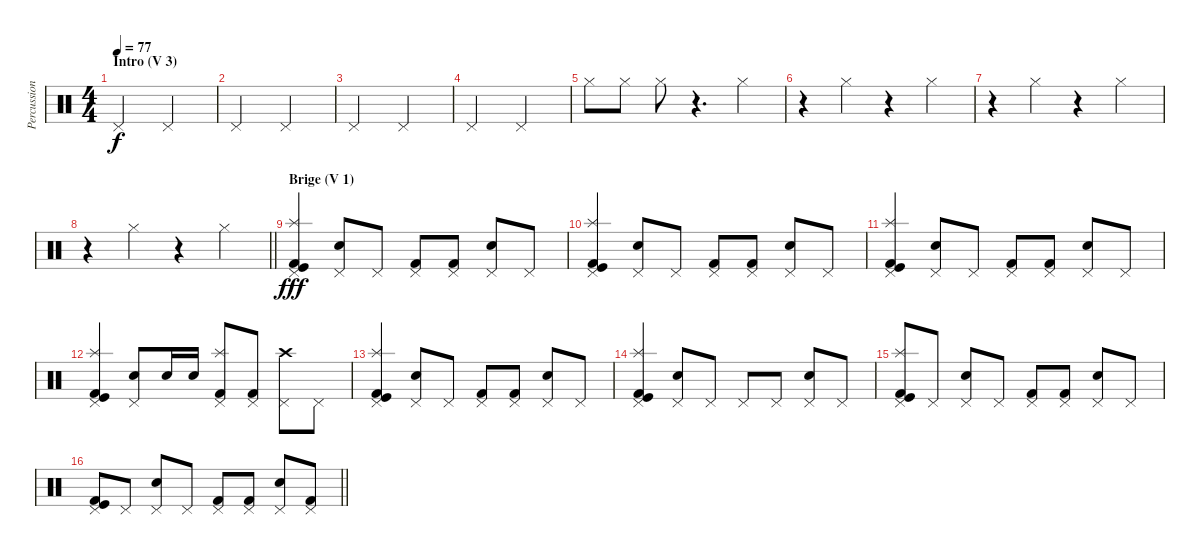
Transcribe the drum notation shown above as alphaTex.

\track ("Percussion" "Percussion") {instrument percussion}
\staff {score}
\articulation defaults
\ts (4 4)
\section ("" "Intro (V 3)")
\tempo 77
\clef neutral
\ks c "Pedal Hi-Hat (hit)".2{dy f} "Pedal Hi-Hat (hit)".2
|
"Pedal Hi-Hat (hit)".2 "Pedal Hi-Hat (hit)".2 |
"Pedal Hi-Hat (hit)".2 "Pedal Hi-Hat (hit)".2 |
"Pedal Hi-Hat (hit)".2 "Pedal Hi-Hat (hit)".2 |
"Hi-Hat (closed)".8 "Hi-Hat (closed)".8 "Hi-Hat (closed)".8 r.4{d} "Hi-Hat (closed)".4 |
r.4 "Hi-Hat (closed)".4 r.4 "Hi-Hat (closed)".4 |
r.4 "Hi-Hat (closed)".4 r.4 "Hi-Hat (closed)".4 |
\barLineRight lightlight
r.4 "Hi-Hat (closed)".4 r.4 "Hi-Hat (closed)".4 |
\section ("" "Brige (V 1)")
("Splash (hit)" "Pedal Hi-Hat (hit)" "Kick (hit)" "Kick (hit) 2").4{dy fff} ("Snare (hit) 2" "Pedal Hi-Hat (hit)").8 "Pedal Hi-Hat (hit)".8 ("Pedal Hi-Hat (hit)" "Kick (hit) 2").8 ("Pedal Hi-Hat (hit)" "Kick (hit) 2").8 ("Snare (hit) 2" "Pedal Hi-Hat (hit)").8 "Pedal Hi-Hat (hit)".8 |
("Splash (hit)" "Pedal Hi-Hat (hit)" "Kick (hit)" "Kick (hit) 2").4 ("Snare (hit) 2" "Pedal Hi-Hat (hit)").8 "Pedal Hi-Hat (hit)".8 ("Pedal Hi-Hat (hit)" "Kick (hit) 2").8 ("Pedal Hi-Hat (hit)" "Kick (hit) 2").8 ("Snare (hit) 2" "Pedal Hi-Hat (hit)").8 "Pedal Hi-Hat (hit)".8 |
("Splash (hit)" "Pedal Hi-Hat (hit)" "Kick (hit)" "Kick (hit) 2").4 ("Snare (hit) 2" "Pedal Hi-Hat (hit)").8 "Pedal Hi-Hat (hit)".8 ("Pedal Hi-Hat (hit)" "Kick (hit) 2").8 ("Pedal Hi-Hat (hit)" "Kick (hit) 2").8 ("Snare (hit) 2" "Pedal Hi-Hat (hit)").8 "Pedal Hi-Hat (hit)".8 |
("Splash (hit)" "Pedal Hi-Hat (hit)" "Kick (hit)" "Kick (hit) 2").4 ("Snare (hit) 2" "Pedal Hi-Hat (hit)").8 "Snare (hit) 2".16 "Snare (hit) 2".16 ("Splash (hit)" "Pedal Hi-Hat (hit)" "Kick (hit) 2").8 ("Pedal Hi-Hat (hit)" "Kick (hit) 2").8 ("Crash high (hit)" "Pedal Hi-Hat (hit)").8 "Pedal Hi-Hat (hit)".8 |
("Splash (hit)" "Pedal Hi-Hat (hit)" "Kick (hit)" "Kick (hit) 2").4 ("Snare (hit) 2" "Pedal Hi-Hat (hit)").8 "Pedal Hi-Hat (hit)".8 ("Pedal Hi-Hat (hit)" "Kick (hit) 2").8 ("Pedal Hi-Hat (hit)" "Kick (hit) 2").8 ("Snare (hit) 2" "Pedal Hi-Hat (hit)").8 "Pedal Hi-Hat (hit)".8 |
("Splash (hit)" "Pedal Hi-Hat (hit)" "Kick (hit)" "Kick (hit) 2").4 ("Snare (hit) 2" "Pedal Hi-Hat (hit)").8 "Pedal Hi-Hat (hit)".8 "Pedal Hi-Hat (hit)".8 "Pedal Hi-Hat (hit)".8 ("Snare (hit) 2" "Pedal Hi-Hat (hit)").8 "Pedal Hi-Hat (hit)".8 |
("Splash (hit)" "Pedal Hi-Hat (hit)" "Kick (hit)" "Kick (hit) 2").8 "Pedal Hi-Hat (hit)".8 ("Snare (hit) 2" "Pedal Hi-Hat (hit)").8 "Pedal Hi-Hat (hit)".8 ("Pedal Hi-Hat (hit)" "Kick (hit) 2").8 ("Pedal Hi-Hat (hit)" "Kick (hit) 2").8 ("Snare (hit) 2" "Pedal Hi-Hat (hit)").8 "Pedal Hi-Hat (hit)".8 |
\barLineRight lightlight
("Pedal Hi-Hat (hit)" "Kick (hit)" "Kick (hit) 2").8 "Pedal Hi-Hat (hit)".8 ("Snare (hit) 2" "Pedal Hi-Hat (hit)").8 "Pedal Hi-Hat (hit)".8 ("Pedal Hi-Hat (hit)" "Kick (hit) 2").8 ("Pedal Hi-Hat (hit)" "Kick (hit) 2").8 ("Snare (hit) 2" "Pedal Hi-Hat (hit)").8 ("Pedal Hi-Hat (hit)" "Kick (hit) 2").8
